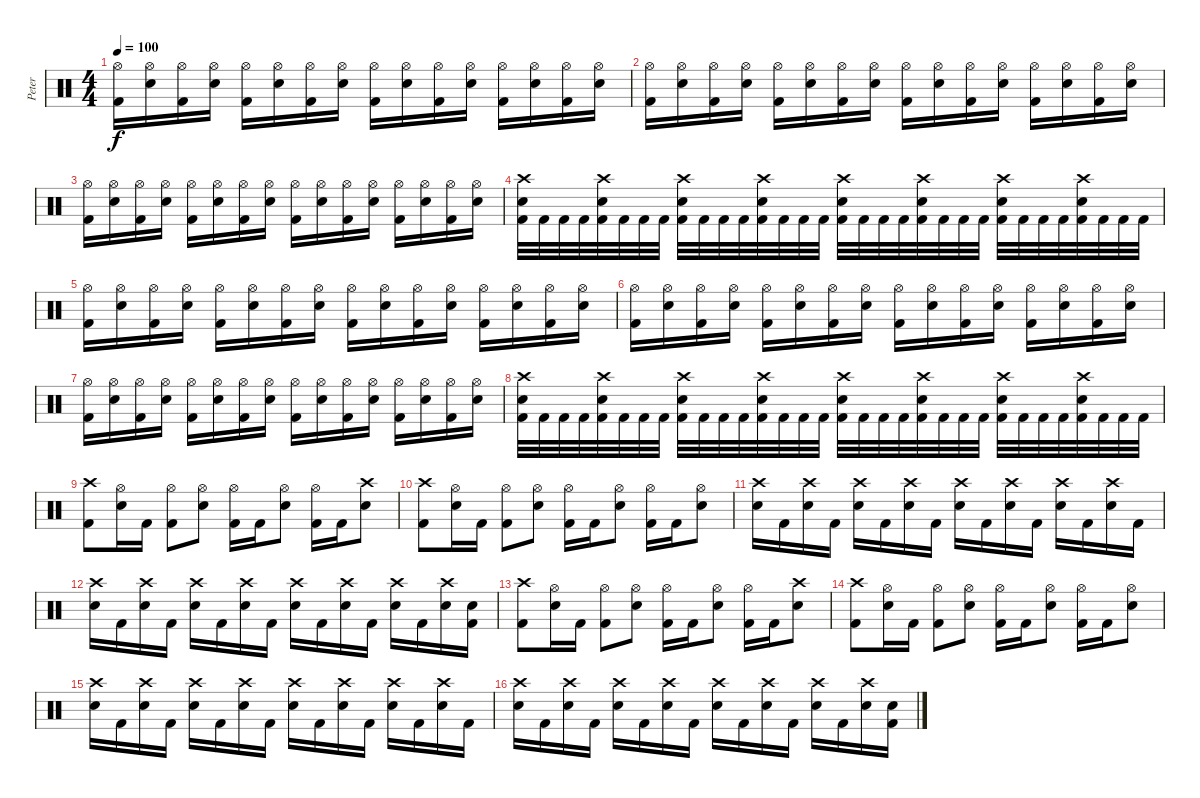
\track ("Peter" "Peter") {instrument percussion}
\staff {score}
\articulation defaults
\ts (4 4)
\tempo 100
\clef neutral
\ks c
("Hi-Hat (open)" "Kick (hit) 2").16{dy f} ("Hi-Hat (open)" "Electric Snare (hit)").16 ("Hi-Hat (open)" "Kick (hit) 2").16 ("Hi-Hat (open)" "Electric Snare (hit)").16 ("Hi-Hat (open)" "Kick (hit) 2").16 ("Hi-Hat (open)" "Electric Snare (hit)").16 ("Hi-Hat (open)" "Kick (hit) 2").16 ("Hi-Hat (open)" "Electric Snare (hit)").16 ("Hi-Hat (open)" "Kick (hit) 2").16 ("Hi-Hat (open)" "Electric Snare (hit)").16 ("Hi-Hat (open)" "Kick (hit) 2").16 ("Hi-Hat (open)" "Electric Snare (hit)").16 ("Hi-Hat (open)" "Kick (hit) 2").16 ("Hi-Hat (open)" "Electric Snare (hit)").16 ("Hi-Hat (open)" "Kick (hit) 2").16 ("Hi-Hat (open)" "Electric Snare (hit)").16 |
("Hi-Hat (open)" "Kick (hit) 2").16 ("Hi-Hat (open)" "Electric Snare (hit)").16 ("Hi-Hat (open)" "Kick (hit) 2").16 ("Hi-Hat (open)" "Electric Snare (hit)").16 ("Hi-Hat (open)" "Kick (hit) 2").16 ("Hi-Hat (open)" "Electric Snare (hit)").16 ("Hi-Hat (open)" "Kick (hit) 2").16 ("Hi-Hat (open)" "Electric Snare (hit)").16 ("Hi-Hat (open)" "Kick (hit) 2").16 ("Hi-Hat (open)" "Electric Snare (hit)").16 ("Hi-Hat (open)" "Kick (hit) 2").16 ("Hi-Hat (open)" "Electric Snare (hit)").16 ("Hi-Hat (open)" "Kick (hit) 2").16 ("Hi-Hat (open)" "Electric Snare (hit)").16 ("Hi-Hat (open)" "Kick (hit) 2").16 ("Hi-Hat (open)" "Electric Snare (hit)").16 |
("Hi-Hat (open)" "Kick (hit) 2").16 ("Hi-Hat (open)" "Electric Snare (hit)").16 ("Hi-Hat (open)" "Kick (hit) 2").16 ("Hi-Hat (open)" "Electric Snare (hit)").16 ("Hi-Hat (open)" "Kick (hit) 2").16 ("Hi-Hat (open)" "Electric Snare (hit)").16 ("Hi-Hat (open)" "Kick (hit) 2").16 ("Hi-Hat (open)" "Electric Snare (hit)").16 ("Hi-Hat (open)" "Kick (hit) 2").16 ("Hi-Hat (open)" "Electric Snare (hit)").16 ("Hi-Hat (open)" "Kick (hit) 2").16 ("Hi-Hat (open)" "Electric Snare (hit)").16 ("Hi-Hat (open)" "Kick (hit) 2").16 ("Hi-Hat (open)" "Electric Snare (hit)").16 ("Hi-Hat (open)" "Kick (hit) 2").16 ("Hi-Hat (open)" "Electric Snare (hit)").16 |
("Crash high (hit)" "Electric Snare (hit)" "Kick (hit) 2").32 "Kick (hit) 2".32 "Kick (hit) 2".32 "Kick (hit) 2".32 ("Crash high (hit)" "Electric Snare (hit)" "Kick (hit) 2").32 "Kick (hit) 2".32 "Kick (hit) 2".32 "Kick (hit) 2".32 ("Crash high (hit)" "Electric Snare (hit)" "Kick (hit) 2").32 "Kick (hit) 2".32 "Kick (hit) 2".32 "Kick (hit) 2".32 ("Crash high (hit)" "Electric Snare (hit)" "Kick (hit) 2").32 "Kick (hit) 2".32 "Kick (hit) 2".32 "Kick (hit) 2".32 ("Crash high (hit)" "Electric Snare (hit)" "Kick (hit) 2").32 "Kick (hit) 2".32 "Kick (hit) 2".32 "Kick (hit) 2".32 ("Crash high (hit)" "Electric Snare (hit)" "Kick (hit) 2").32 "Kick (hit) 2".32 "Kick (hit) 2".32 "Kick (hit) 2".32 ("Crash high (hit)" "Electric Snare (hit)" "Kick (hit) 2").32 "Kick (hit) 2".32 "Kick (hit) 2".32 "Kick (hit) 2".32 ("Crash high (hit)" "Electric Snare (hit)" "Kick (hit) 2").32 "Kick (hit) 2".32 "Kick (hit) 2".32 "Kick (hit) 2".32 |
("Hi-Hat (open)" "Kick (hit) 2").16 ("Hi-Hat (open)" "Electric Snare (hit)").16 ("Hi-Hat (open)" "Kick (hit) 2").16 ("Hi-Hat (open)" "Electric Snare (hit)").16 ("Hi-Hat (open)" "Kick (hit) 2").16 ("Hi-Hat (open)" "Electric Snare (hit)").16 ("Hi-Hat (open)" "Kick (hit) 2").16 ("Hi-Hat (open)" "Electric Snare (hit)").16 ("Hi-Hat (open)" "Kick (hit) 2").16 ("Hi-Hat (open)" "Electric Snare (hit)").16 ("Hi-Hat (open)" "Kick (hit) 2").16 ("Hi-Hat (open)" "Electric Snare (hit)").16 ("Hi-Hat (open)" "Kick (hit) 2").16 ("Hi-Hat (open)" "Electric Snare (hit)").16 ("Hi-Hat (open)" "Kick (hit) 2").16 ("Hi-Hat (open)" "Electric Snare (hit)").16 |
("Hi-Hat (open)" "Kick (hit) 2").16 ("Hi-Hat (open)" "Electric Snare (hit)").16 ("Hi-Hat (open)" "Kick (hit) 2").16 ("Hi-Hat (open)" "Electric Snare (hit)").16 ("Hi-Hat (open)" "Kick (hit) 2").16 ("Hi-Hat (open)" "Electric Snare (hit)").16 ("Hi-Hat (open)" "Kick (hit) 2").16 ("Hi-Hat (open)" "Electric Snare (hit)").16 ("Hi-Hat (open)" "Kick (hit) 2").16 ("Hi-Hat (open)" "Electric Snare (hit)").16 ("Hi-Hat (open)" "Kick (hit) 2").16 ("Hi-Hat (open)" "Electric Snare (hit)").16 ("Hi-Hat (open)" "Kick (hit) 2").16 ("Hi-Hat (open)" "Electric Snare (hit)").16 ("Hi-Hat (open)" "Kick (hit) 2").16 ("Hi-Hat (open)" "Electric Snare (hit)").16 |
("Hi-Hat (open)" "Kick (hit) 2").16 ("Hi-Hat (open)" "Electric Snare (hit)").16 ("Hi-Hat (open)" "Kick (hit) 2").16 ("Hi-Hat (open)" "Electric Snare (hit)").16 ("Hi-Hat (open)" "Kick (hit) 2").16 ("Hi-Hat (open)" "Electric Snare (hit)").16 ("Hi-Hat (open)" "Kick (hit) 2").16 ("Hi-Hat (open)" "Electric Snare (hit)").16 ("Hi-Hat (open)" "Kick (hit) 2").16 ("Hi-Hat (open)" "Electric Snare (hit)").16 ("Hi-Hat (open)" "Kick (hit) 2").16 ("Hi-Hat (open)" "Electric Snare (hit)").16 ("Hi-Hat (open)" "Kick (hit) 2").16 ("Hi-Hat (open)" "Electric Snare (hit)").16 ("Hi-Hat (open)" "Kick (hit) 2").16 ("Hi-Hat (open)" "Electric Snare (hit)").16 |
("Crash high (hit)" "Electric Snare (hit)" "Kick (hit) 2").32 "Kick (hit) 2".32 "Kick (hit) 2".32 "Kick (hit) 2".32 ("Crash high (hit)" "Electric Snare (hit)" "Kick (hit) 2").32 "Kick (hit) 2".32 "Kick (hit) 2".32 "Kick (hit) 2".32 ("Crash high (hit)" "Electric Snare (hit)" "Kick (hit) 2").32 "Kick (hit) 2".32 "Kick (hit) 2".32 "Kick (hit) 2".32 ("Crash high (hit)" "Electric Snare (hit)" "Kick (hit) 2").32 "Kick (hit) 2".32 "Kick (hit) 2".32 "Kick (hit) 2".32 ("Crash high (hit)" "Electric Snare (hit)" "Kick (hit) 2").32 "Kick (hit) 2".32 "Kick (hit) 2".32 "Kick (hit) 2".32 ("Crash high (hit)" "Electric Snare (hit)" "Kick (hit) 2").32 "Kick (hit) 2".32 "Kick (hit) 2".32 "Kick (hit) 2".32 ("Crash high (hit)" "Electric Snare (hit)" "Kick (hit) 2").32 "Kick (hit) 2".32 "Kick (hit) 2".32 "Kick (hit) 2".32 ("Crash high (hit)" "Electric Snare (hit)" "Kick (hit) 2").32 "Kick (hit) 2".32 "Kick (hit) 2".32 "Kick (hit) 2".32 |
("Kick (hit) 2" "Crash high (hit)").8 ("Electric Snare (hit)" "Hi-Hat (open)").16 "Kick (hit) 2".16 ("Kick (hit) 2" "Hi-Hat (open)").8 ("Electric Snare (hit)" "Hi-Hat (open)").8 ("Kick (hit) 2" "Hi-Hat (open)").16 "Kick (hit) 2".16 ("Electric Snare (hit)" "Hi-Hat (open)").8 ("Kick (hit) 2" "Hi-Hat (open)").16 "Kick (hit) 2".16 ("Electric Snare (hit)" "Crash high (hit)").8 |
("Kick (hit) 2" "Crash high (hit)").8 ("Electric Snare (hit)" "Hi-Hat (open)").16 "Kick (hit) 2".16 ("Kick (hit) 2" "Hi-Hat (open)").8 ("Electric Snare (hit)" "Hi-Hat (open)").8 ("Kick (hit) 2" "Hi-Hat (open)").16 "Kick (hit) 2".16 ("Electric Snare (hit)" "Hi-Hat (open)").8 ("Kick (hit) 2" "Hi-Hat (open)").16 "Kick (hit) 2".16 ("Electric Snare (hit)" "Hi-Hat (open)").8 |
("Electric Snare (hit)" "Crash high (hit)").16 "Kick (hit) 2".16 ("Electric Snare (hit)" "Crash high (hit)").16 "Kick (hit) 2".16 ("Electric Snare (hit)" "Crash high (hit)").16 "Kick (hit) 2".16 ("Electric Snare (hit)" "Crash high (hit)").16 "Kick (hit) 2".16 ("Electric Snare (hit)" "Crash high (hit)").16 "Kick (hit) 2".16 ("Electric Snare (hit)" "Crash high (hit)").16 "Kick (hit) 2".16 ("Electric Snare (hit)" "Crash high (hit)").16 "Kick (hit) 2".16 ("Electric Snare (hit)" "Crash high (hit)").16 "Kick (hit) 2".16 |
("Electric Snare (hit)" "Crash high (hit)").16 "Kick (hit) 2".16 ("Electric Snare (hit)" "Crash high (hit)").16 "Kick (hit) 2".16 ("Electric Snare (hit)" "Crash high (hit)").16 "Kick (hit) 2".16 ("Electric Snare (hit)" "Crash high (hit)").16 "Kick (hit) 2".16 ("Electric Snare (hit)" "Crash high (hit)").16 "Kick (hit) 2".16 ("Electric Snare (hit)" "Crash high (hit)").16 "Kick (hit) 2".16 ("Electric Snare (hit)" "Crash high (hit)").16 "Kick (hit) 2".16 ("Electric Snare (hit)" "Crash high (hit)").16 ("Kick (hit) 2" "Electric Snare (hit)").16 |
("Kick (hit) 2" "Crash high (hit)").8 ("Electric Snare (hit)" "Hi-Hat (open)").16 "Kick (hit) 2".16 ("Kick (hit) 2" "Hi-Hat (open)").8 ("Electric Snare (hit)" "Hi-Hat (open)").8 ("Kick (hit) 2" "Hi-Hat (open)").16 "Kick (hit) 2".16 ("Electric Snare (hit)" "Hi-Hat (open)").8 ("Kick (hit) 2" "Hi-Hat (open)").16 "Kick (hit) 2".16 ("Electric Snare (hit)" "Crash high (hit)").8 |
("Kick (hit) 2" "Crash high (hit)").8 ("Electric Snare (hit)" "Hi-Hat (open)").16 "Kick (hit) 2".16 ("Kick (hit) 2" "Hi-Hat (open)").8 ("Electric Snare (hit)" "Hi-Hat (open)").8 ("Kick (hit) 2" "Hi-Hat (open)").16 "Kick (hit) 2".16 ("Electric Snare (hit)" "Hi-Hat (open)").8 ("Kick (hit) 2" "Hi-Hat (open)").16 "Kick (hit) 2".16 ("Electric Snare (hit)" "Hi-Hat (open)").8 |
("Electric Snare (hit)" "Crash high (hit)").16 "Kick (hit) 2".16 ("Electric Snare (hit)" "Crash high (hit)").16 "Kick (hit) 2".16 ("Electric Snare (hit)" "Crash high (hit)").16 "Kick (hit) 2".16 ("Electric Snare (hit)" "Crash high (hit)").16 "Kick (hit) 2".16 ("Electric Snare (hit)" "Crash high (hit)").16 "Kick (hit) 2".16 ("Electric Snare (hit)" "Crash high (hit)").16 "Kick (hit) 2".16 ("Electric Snare (hit)" "Crash high (hit)").16 "Kick (hit) 2".16 ("Electric Snare (hit)" "Crash high (hit)").16 "Kick (hit) 2".16 |
("Electric Snare (hit)" "Crash high (hit)").16 "Kick (hit) 2".16 ("Electric Snare (hit)" "Crash high (hit)").16 "Kick (hit) 2".16 ("Electric Snare (hit)" "Crash high (hit)").16 "Kick (hit) 2".16 ("Electric Snare (hit)" "Crash high (hit)").16 "Kick (hit) 2".16 ("Electric Snare (hit)" "Crash high (hit)").16 "Kick (hit) 2".16 ("Electric Snare (hit)" "Crash high (hit)").16 "Kick (hit) 2".16 ("Electric Snare (hit)" "Crash high (hit)").16 "Kick (hit) 2".16 ("Electric Snare (hit)" "Crash high (hit)").16 ("Kick (hit) 2" "Electric Snare (hit)").16
